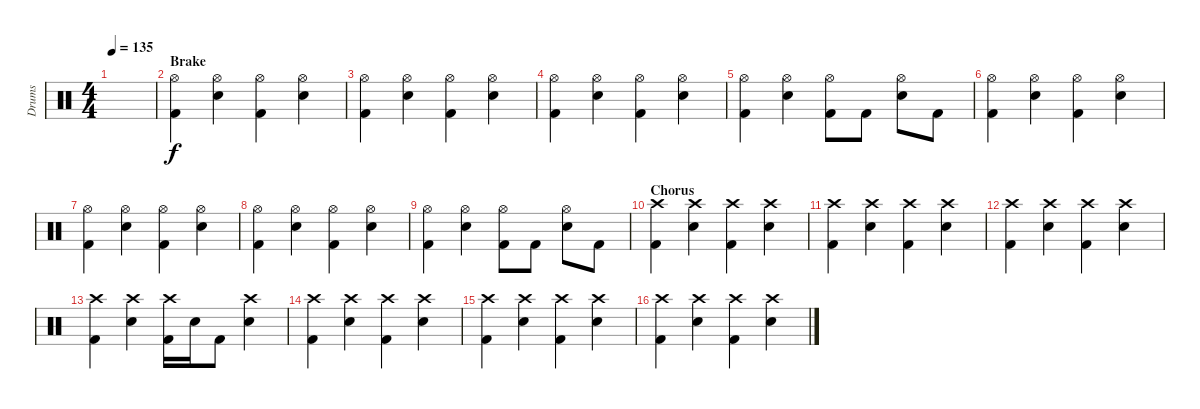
\track ("Drums" "Drums") {instrument percussion}
\staff {score}
\articulation defaults
\ts (4 4)
\tempo 135
\clef neutral
\ks c
|
\section ("" "Brake")
("Hi-Hat (open)" "Kick (hit) 2").4 ("Hi-Hat (open)" "Electric Snare (hit)").4 ("Hi-Hat (open)" "Kick (hit) 2").4 ("Hi-Hat (open)" "Electric Snare (hit)").4 |
("Hi-Hat (open)" "Kick (hit) 2").4 ("Hi-Hat (open)" "Electric Snare (hit)").4 ("Hi-Hat (open)" "Kick (hit) 2").4 ("Hi-Hat (open)" "Electric Snare (hit)").4 |
("Hi-Hat (open)" "Kick (hit) 2").4 ("Hi-Hat (open)" "Electric Snare (hit)").4 ("Hi-Hat (open)" "Kick (hit) 2").4 ("Hi-Hat (open)" "Electric Snare (hit)").4 |
("Hi-Hat (open)" "Kick (hit) 2").4 ("Hi-Hat (open)" "Electric Snare (hit)").4 ("Hi-Hat (open)" "Kick (hit) 2").8 "Kick (hit) 2".8 ("Hi-Hat (open)" "Electric Snare (hit)").8 "Kick (hit) 2".8 |
("Hi-Hat (open)" "Kick (hit) 2").4 ("Hi-Hat (open)" "Electric Snare (hit)").4 ("Hi-Hat (open)" "Kick (hit) 2").4 ("Hi-Hat (open)" "Electric Snare (hit)").4 |
("Hi-Hat (open)" "Kick (hit) 2").4 ("Hi-Hat (open)" "Electric Snare (hit)").4 ("Hi-Hat (open)" "Kick (hit) 2").4 ("Hi-Hat (open)" "Electric Snare (hit)").4 |
("Hi-Hat (open)" "Kick (hit) 2").4 ("Hi-Hat (open)" "Electric Snare (hit)").4 ("Hi-Hat (open)" "Kick (hit) 2").4 ("Hi-Hat (open)" "Electric Snare (hit)").4 |
("Hi-Hat (open)" "Kick (hit) 2").4 ("Hi-Hat (open)" "Electric Snare (hit)").4 ("Hi-Hat (open)" "Kick (hit) 2").8 "Kick (hit) 2".8 ("Hi-Hat (open)" "Electric Snare (hit)").8 "Kick (hit) 2".8 |
\section ("" "Chorus")
("Crash high (hit)" "Kick (hit) 2").4 ("Crash high (hit)" "Electric Snare (hit)").4 ("Crash high (hit)" "Kick (hit) 2").4 ("Crash high (hit)" "Electric Snare (hit)").4 |
("Crash high (hit)" "Kick (hit) 2").4 ("Crash high (hit)" "Electric Snare (hit)").4 ("Crash high (hit)" "Kick (hit) 2").4 ("Crash high (hit)" "Electric Snare (hit)").4 |
("Crash high (hit)" "Kick (hit) 2").4 ("Crash high (hit)" "Electric Snare (hit)").4 ("Crash high (hit)" "Kick (hit) 2").4 ("Crash high (hit)" "Electric Snare (hit)").4 |
("Crash high (hit)" "Kick (hit) 2").4 ("Crash high (hit)" "Electric Snare (hit)").4 ("Crash high (hit)" "Kick (hit) 2").16 "Electric Snare (hit)".16 "Kick (hit) 2".8 ("Crash high (hit)" "Electric Snare (hit)").4 |
("Crash high (hit)" "Kick (hit) 2").4 ("Crash high (hit)" "Electric Snare (hit)").4 ("Crash high (hit)" "Kick (hit) 2").4 ("Crash high (hit)" "Electric Snare (hit)").4 |
("Crash high (hit)" "Kick (hit) 2").4 ("Crash high (hit)" "Electric Snare (hit)").4 ("Crash high (hit)" "Kick (hit) 2").4 ("Crash high (hit)" "Electric Snare (hit)").4 |
("Crash high (hit)" "Kick (hit) 2").4 ("Crash high (hit)" "Electric Snare (hit)").4 ("Crash high (hit)" "Kick (hit) 2").4 ("Crash high (hit)" "Electric Snare (hit)").4
